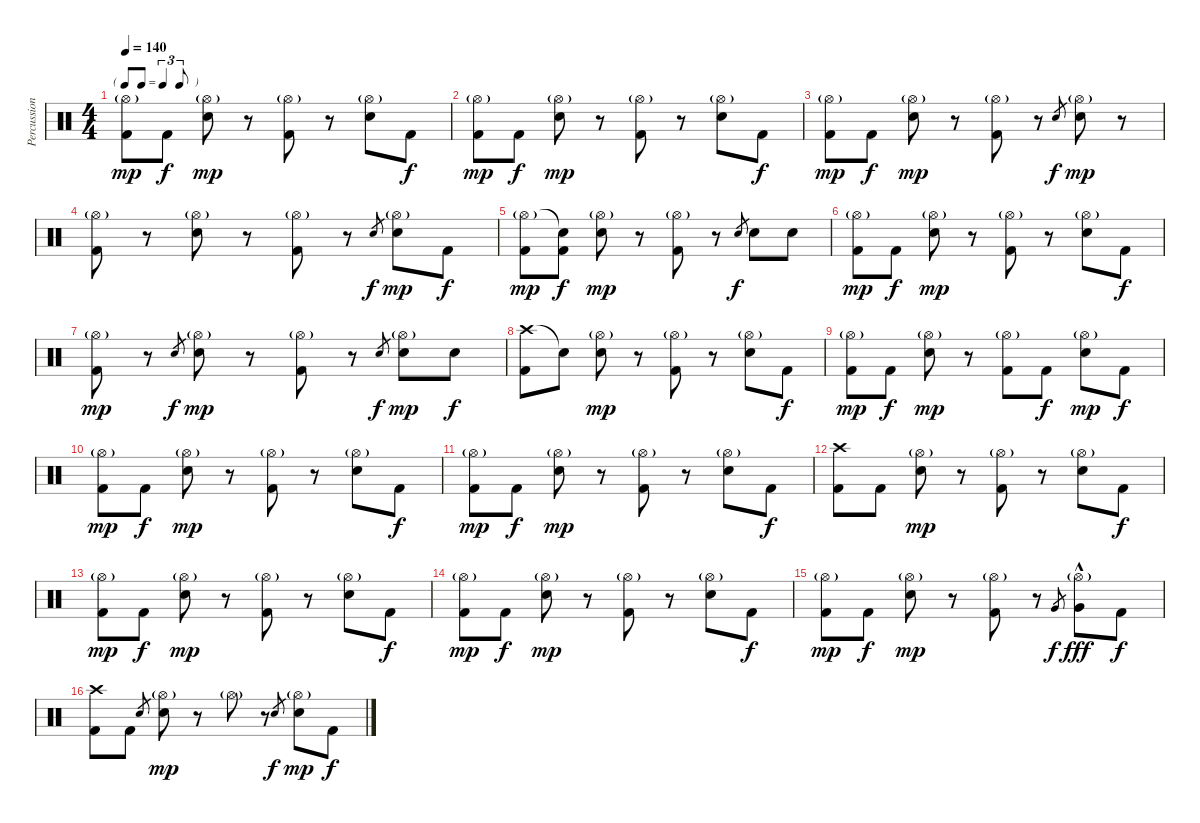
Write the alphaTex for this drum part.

\track ("Percussion" "Percussion") {instrument percussion}
\staff {score}
\articulation defaults
\ts (4 4)
\tf triplet8th
\tempo 140
\clef neutral
\ks c
("Hi-Hat (open)"{g} "Kick (hit) 2").8{dy mp} "Kick (hit) 2".8{dy f} ("Hi-Hat (open)"{g} "Snare (hit) 2").8{dy mp} r.8 ("Hi-Hat (open)"{g} "Kick (hit) 2").8 r.8 ("Hi-Hat (open)"{g} "Snare (hit) 2").8 "Kick (hit) 2".8{dy f} |
("Hi-Hat (open)"{g} "Kick (hit) 2").8{dy mp} "Kick (hit) 2".8{dy f} ("Hi-Hat (open)"{g} "Snare (hit) 2").8{dy mp} r.8 ("Hi-Hat (open)"{g} "Kick (hit) 2").8 r.8 ("Hi-Hat (open)"{g} "Snare (hit) 2").8 "Kick (hit) 2".8{dy f} |
("Hi-Hat (open)"{g} "Kick (hit) 2").8{dy mp} "Kick (hit) 2".8{dy f} ("Hi-Hat (open)"{g} "Snare (hit) 2").8{dy mp} r.8 ("Hi-Hat (open)"{g} "Kick (hit) 2").8 r.8 "Snare (hit) 2".8{gr dy f} ("Hi-Hat (open)"{g} "Snare (hit) 2").8{dy mp} r.8 |
("Hi-Hat (open)"{g} "Kick (hit) 2").8 r.8 ("Hi-Hat (open)"{g} "Snare (hit) 2").8 r.8 ("Hi-Hat (open)"{g} "Kick (hit) 2").8 r.8 "Snare (hit) 2".8{gr dy f} ("Hi-Hat (open)"{g} "Snare (hit) 2").8{dy mp} "Kick (hit) 2".8{dy f} |
("Hi-Hat (open)"{g} "Kick (hit) 2").8{dy mp} ("Snare (hit)"{t} "Kick (hit) 2").8{dy f} ("Hi-Hat (open)"{g} "Snare (hit) 2").8{dy mp} r.8 ("Hi-Hat (open)"{g} "Kick (hit) 2").8 r.8 "Snare (hit) 2".8{gr dy f} "Snare (hit) 2".8 "Snare (hit) 2".8 |
("Hi-Hat (open)"{g} "Kick (hit) 2").8{dy mp} "Kick (hit) 2".8{dy f} ("Hi-Hat (open)"{g} "Snare (hit) 2").8{dy mp} r.8 ("Hi-Hat (open)"{g} "Kick (hit) 2").8 r.8 ("Hi-Hat (open)"{g} "Snare (hit) 2").8 "Kick (hit) 2".8{dy f} |
("Hi-Hat (open)"{g} "Kick (hit) 2").8{dy mp} r.8 "Snare (hit) 2".8{gr dy f} ("Hi-Hat (open)"{g} "Snare (hit) 2").8{dy mp} r.8 ("Hi-Hat (open)"{g} "Kick (hit) 2").8 r.8 "Snare (hit) 2".8{gr dy f} ("Hi-Hat (open)"{g} "Snare (hit) 2").8{dy mp} "Snare (hit) 2".8{dy f} |
("Crash high (hit)" "Kick (hit) 2").8 "Snare (hit)"{t}.8 ("Hi-Hat (open)"{g} "Snare (hit) 2").8{dy mp} r.8 ("Hi-Hat (open)"{g} "Kick (hit) 2").8 r.8 ("Hi-Hat (open)"{g} "Snare (hit) 2").8 "Kick (hit) 2".8{dy f} |
("Hi-Hat (open)"{g} "Kick (hit) 2").8{dy mp} "Kick (hit) 2".8{dy f} ("Hi-Hat (open)"{g} "Snare (hit) 2").8{dy mp} r.8 ("Hi-Hat (open)"{g} "Kick (hit) 2").8 "Kick (hit) 2".8{dy f} ("Hi-Hat (open)"{g} "Snare (hit) 2").8{dy mp} "Kick (hit) 2".8{dy f} |
("Hi-Hat (open)"{g} "Kick (hit) 2").8{dy mp} "Kick (hit) 2".8{dy f} ("Hi-Hat (open)"{g} "Snare (hit) 2").8{dy mp} r.8 ("Hi-Hat (open)"{g} "Kick (hit) 2").8 r.8 ("Hi-Hat (open)"{g} "Snare (hit) 2").8 "Kick (hit) 2".8{dy f} |
("Hi-Hat (open)"{g} "Kick (hit) 2").8{dy mp} "Kick (hit) 2".8{dy f} ("Hi-Hat (open)"{g} "Snare (hit) 2").8{dy mp} r.8 ("Hi-Hat (open)"{g} "Kick (hit) 2").8 r.8 ("Hi-Hat (open)"{g} "Snare (hit) 2").8 "Kick (hit) 2".8{dy f} |
("Crash high (hit)" "Kick (hit) 2").8 "Kick (hit) 2".8 ("Hi-Hat (open)"{g} "Snare (hit) 2").8{dy mp} r.8 ("Hi-Hat (open)"{g} "Kick (hit) 2").8 r.8 ("Hi-Hat (open)"{g} "Snare (hit) 2").8 "Kick (hit) 2".8{dy f} |
("Hi-Hat (open)"{g} "Kick (hit) 2").8{dy mp} "Kick (hit) 2".8{dy f} ("Hi-Hat (open)"{g} "Snare (hit) 2").8{dy mp} r.8 ("Hi-Hat (open)"{g} "Kick (hit) 2").8 r.8 ("Hi-Hat (open)"{g} "Snare (hit) 2").8 "Kick (hit) 2".8{dy f} |
("Hi-Hat (open)"{g} "Kick (hit) 2").8{dy mp} "Kick (hit) 2".8{dy f} ("Hi-Hat (open)"{g} "Snare (hit) 2").8{dy mp} r.8 ("Hi-Hat (open)"{g} "Kick (hit) 2").8 r.8 ("Hi-Hat (open)"{g} "Snare (hit) 2").8 "Kick (hit) 2".8{dy f} |
("Hi-Hat (open)"{g} "Kick (hit) 2").8{dy mp} "Kick (hit) 2".8{dy f} ("Hi-Hat (open)"{g} "Snare (hit) 2").8{dy mp} r.8 ("Hi-Hat (open)"{g} "Kick (hit) 2").8 r.8 "Very Low Tom (hit)".8{gr dy f} ("Hi-Hat (open)"{g} "Very Low Tom (hit)"{hac}).8{dy fff} "Kick (hit) 2".8{dy f} |
("Crash high (hit)" "Kick (hit) 2").8 "Kick (hit) 2".8 "Snare (hit) 2".8{gr} ("Hi-Hat (open)"{g} "Snare (hit) 2").8{dy mp} r.8 "Hi-Hat (open)"{g}.8 r.8 "Snare (hit) 2".8{gr dy f} ("Hi-Hat (open)"{g} "Snare (hit) 2").8{dy mp} "Kick (hit) 2".8{dy f}
